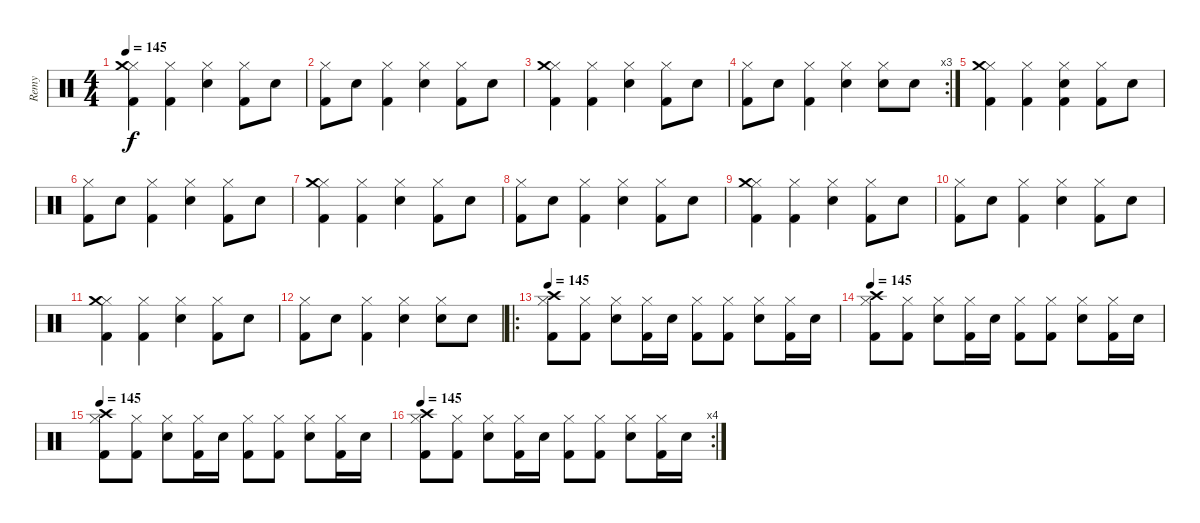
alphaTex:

\track ("Remy" "Remy") {instrument percussion}
\staff {score}
\articulation defaults
\ts (4 4)
\tempo 145
\clef neutral
\ks c
("Hi-Hat (closed)" "Kick (hit) 2" "Crash medium (hit)").4{dy f} ("Hi-Hat (closed)" "Kick (hit) 2").4 ("Hi-Hat (closed)" "Snare (hit) 2").4 ("Hi-Hat (closed)" "Kick (hit) 2").8 "Snare (hit) 2".8 |
("Hi-Hat (closed)" "Kick (hit) 2").8 "Snare (hit) 2".8 ("Hi-Hat (closed)" "Kick (hit) 2").4 ("Hi-Hat (closed)" "Snare (hit) 2").4 ("Hi-Hat (closed)" "Kick (hit) 2").8 "Snare (hit) 2".8 |
("Hi-Hat (closed)" "Kick (hit) 2" "Crash medium (hit)").4 ("Hi-Hat (closed)" "Kick (hit) 2").4 ("Hi-Hat (closed)" "Snare (hit) 2").4 ("Hi-Hat (closed)" "Kick (hit) 2").8 "Snare (hit) 2".8 |
\rc 3
("Hi-Hat (closed)" "Kick (hit) 2").8 "Snare (hit) 2".8 ("Hi-Hat (closed)" "Kick (hit) 2").4 ("Hi-Hat (closed)" "Snare (hit) 2").4 ("Hi-Hat (closed)" "Snare (hit) 2").8 "Snare (hit) 2".8 |
("Hi-Hat (closed)" "Kick (hit) 2" "Crash medium (hit)").4 ("Hi-Hat (closed)" "Kick (hit) 2").4 ("Hi-Hat (closed)" "Kick (hit) 2" "Snare (hit) 2").4 ("Hi-Hat (closed)" "Kick (hit) 2").8 "Snare (hit) 2".8 |
("Hi-Hat (closed)" "Kick (hit) 2").8 "Snare (hit) 2".8 ("Hi-Hat (closed)" "Kick (hit) 2").4 ("Hi-Hat (closed)" "Snare (hit) 2").4 ("Hi-Hat (closed)" "Kick (hit) 2").8 "Snare (hit) 2".8 |
("Hi-Hat (closed)" "Kick (hit) 2" "Crash medium (hit)").4 ("Hi-Hat (closed)" "Kick (hit) 2").4 ("Hi-Hat (closed)" "Snare (hit) 2").4 ("Hi-Hat (closed)" "Kick (hit) 2").8 "Snare (hit) 2".8 |
("Hi-Hat (closed)" "Kick (hit) 2").8 "Snare (hit) 2".8 ("Hi-Hat (closed)" "Kick (hit) 2").4 ("Hi-Hat (closed)" "Snare (hit) 2").4 ("Hi-Hat (closed)" "Kick (hit) 2").8 "Snare (hit) 2".8 |
("Hi-Hat (closed)" "Kick (hit) 2" "Crash medium (hit)").4 ("Hi-Hat (closed)" "Kick (hit) 2").4 ("Hi-Hat (closed)" "Snare (hit) 2").4 ("Hi-Hat (closed)" "Kick (hit) 2").8 "Snare (hit) 2".8 |
("Hi-Hat (closed)" "Kick (hit) 2").8 "Snare (hit) 2".8 ("Hi-Hat (closed)" "Kick (hit) 2").4 ("Hi-Hat (closed)" "Snare (hit) 2").4 ("Hi-Hat (closed)" "Kick (hit) 2").8 "Snare (hit) 2".8 |
("Hi-Hat (closed)" "Kick (hit) 2" "Crash medium (hit)").4 ("Hi-Hat (closed)" "Kick (hit) 2").4 ("Hi-Hat (closed)" "Snare (hit) 2").4 ("Hi-Hat (closed)" "Kick (hit) 2").8 "Snare (hit) 2".8 |
("Hi-Hat (closed)" "Kick (hit) 2").8 "Snare (hit) 2".8 ("Hi-Hat (closed)" "Kick (hit) 2").4 ("Hi-Hat (closed)" "Snare (hit) 2").4 ("Hi-Hat (closed)" "Snare (hit) 2").8 "Snare (hit) 2".8 |
\ro
\tempo 145
("Hi-Hat (closed)" "Kick (hit) 2" "Crash high (hit)").8 ("Hi-Hat (closed)" "Kick (hit) 2").8 ("Hi-Hat (closed)" "Snare (hit) 2").8 ("Hi-Hat (closed)" "Kick (hit) 2").16 "Snare (hit) 2".16 ("Hi-Hat (closed)" "Kick (hit) 2").8 ("Hi-Hat (closed)" "Kick (hit) 2").8 ("Hi-Hat (closed)" "Snare (hit) 2").8 ("Hi-Hat (closed)" "Kick (hit) 2").16 "Snare (hit) 2".16 |
\tempo 145
("Hi-Hat (closed)" "Kick (hit) 2" "Crash high (hit)").8 ("Hi-Hat (closed)" "Kick (hit) 2").8 ("Hi-Hat (closed)" "Snare (hit) 2").8 ("Hi-Hat (closed)" "Kick (hit) 2").16 "Snare (hit) 2".16 ("Hi-Hat (closed)" "Kick (hit) 2").8 ("Hi-Hat (closed)" "Kick (hit) 2").8 ("Hi-Hat (closed)" "Snare (hit) 2").8 ("Hi-Hat (closed)" "Kick (hit) 2").16 "Snare (hit) 2".16 |
\tempo 145
("Hi-Hat (closed)" "Kick (hit) 2" "Crash high (hit)").8 ("Hi-Hat (closed)" "Kick (hit) 2").8 ("Hi-Hat (closed)" "Snare (hit) 2").8 ("Hi-Hat (closed)" "Kick (hit) 2").16 "Snare (hit) 2".16 ("Hi-Hat (closed)" "Kick (hit) 2").8 ("Hi-Hat (closed)" "Kick (hit) 2").8 ("Hi-Hat (closed)" "Snare (hit) 2").8 ("Hi-Hat (closed)" "Kick (hit) 2").16 "Snare (hit) 2".16 |
\rc 4
\tempo 145
("Hi-Hat (closed)" "Kick (hit) 2" "Crash high (hit)").8 ("Hi-Hat (closed)" "Kick (hit) 2").8 ("Hi-Hat (closed)" "Snare (hit) 2").8 ("Hi-Hat (closed)" "Kick (hit) 2").16 "Snare (hit) 2".16 ("Hi-Hat (closed)" "Kick (hit) 2").8 ("Hi-Hat (closed)" "Kick (hit) 2").8 ("Hi-Hat (closed)" "Snare (hit) 2").8 ("Hi-Hat (closed)" "Kick (hit) 2").16 "Snare (hit) 2".16
